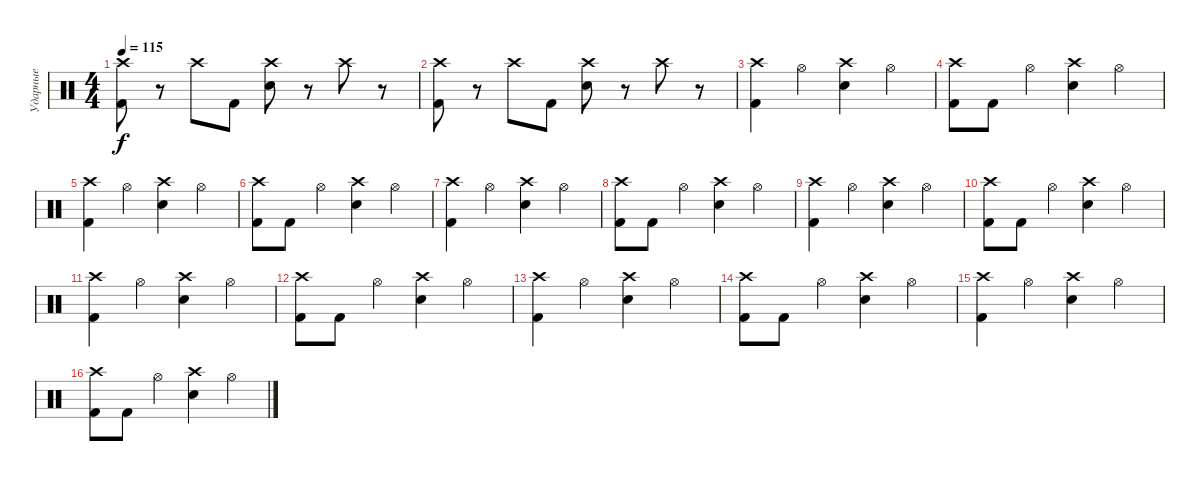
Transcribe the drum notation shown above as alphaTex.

\track ("Ударные" "Ударные") {mute instrument percussion}
\staff {score}
\articulation defaults
\ts (4 4)
\tempo 115
\clef neutral
\ks c
("Kick (hit) 2" "Crash high (hit)").8{dy f} r.8 "Crash high (hit)".8 "Kick (hit) 2".8 ("Electric Snare (hit)" "Crash high (hit)").8 r.8 "Crash high (hit)".8 r.8 |
("Kick (hit) 2" "Crash high (hit)").8 r.8 "Crash high (hit)".8 "Kick (hit) 2".8 ("Electric Snare (hit)" "Crash high (hit)").8 r.8 "Crash high (hit)".8 r.8 |
("Crash high (hit)" "Kick (hit) 2").4 "Hi-Hat (open)".4 ("Crash high (hit)" "Electric Snare (hit)").4 "Hi-Hat (open)".4 |
("Crash high (hit)" "Kick (hit) 2").8 "Kick (hit) 2".8 "Hi-Hat (open)".4 ("Crash high (hit)" "Electric Snare (hit)").4 "Hi-Hat (open)".4 |
("Crash high (hit)" "Kick (hit) 2").4 "Hi-Hat (open)".4 ("Crash high (hit)" "Electric Snare (hit)").4 "Hi-Hat (open)".4 |
("Crash high (hit)" "Kick (hit) 2").8 "Kick (hit) 2".8 "Hi-Hat (open)".4 ("Crash high (hit)" "Electric Snare (hit)").4 "Hi-Hat (open)".4 |
("Crash high (hit)" "Kick (hit) 2").4 "Hi-Hat (open)".4 ("Crash high (hit)" "Electric Snare (hit)").4 "Hi-Hat (open)".4 |
("Crash high (hit)" "Kick (hit) 2").8 "Kick (hit) 2".8 "Hi-Hat (open)".4 ("Crash high (hit)" "Electric Snare (hit)").4 "Hi-Hat (open)".4 |
("Crash high (hit)" "Kick (hit) 2").4 "Hi-Hat (open)".4 ("Crash high (hit)" "Electric Snare (hit)").4 "Hi-Hat (open)".4 |
("Crash high (hit)" "Kick (hit) 2").8 "Kick (hit) 2".8 "Hi-Hat (open)".4 ("Crash high (hit)" "Electric Snare (hit)").4 "Hi-Hat (open)".4 |
("Crash high (hit)" "Kick (hit) 2").4 "Hi-Hat (open)".4 ("Crash high (hit)" "Electric Snare (hit)").4 "Hi-Hat (open)".4 |
("Crash high (hit)" "Kick (hit) 2").8 "Kick (hit) 2".8 "Hi-Hat (open)".4 ("Crash high (hit)" "Electric Snare (hit)").4 "Hi-Hat (open)".4 |
("Crash high (hit)" "Kick (hit) 2").4 "Hi-Hat (open)".4 ("Crash high (hit)" "Electric Snare (hit)").4 "Hi-Hat (open)".4 |
("Crash high (hit)" "Kick (hit) 2").8 "Kick (hit) 2".8 "Hi-Hat (open)".4 ("Crash high (hit)" "Electric Snare (hit)").4 "Hi-Hat (open)".4 |
("Crash high (hit)" "Kick (hit) 2").4 "Hi-Hat (open)".4 ("Crash high (hit)" "Electric Snare (hit)").4 "Hi-Hat (open)".4 |
("Crash high (hit)" "Kick (hit) 2").8 "Kick (hit) 2".8 "Hi-Hat (open)".4 ("Crash high (hit)" "Electric Snare (hit)").4 "Hi-Hat (open)".4
